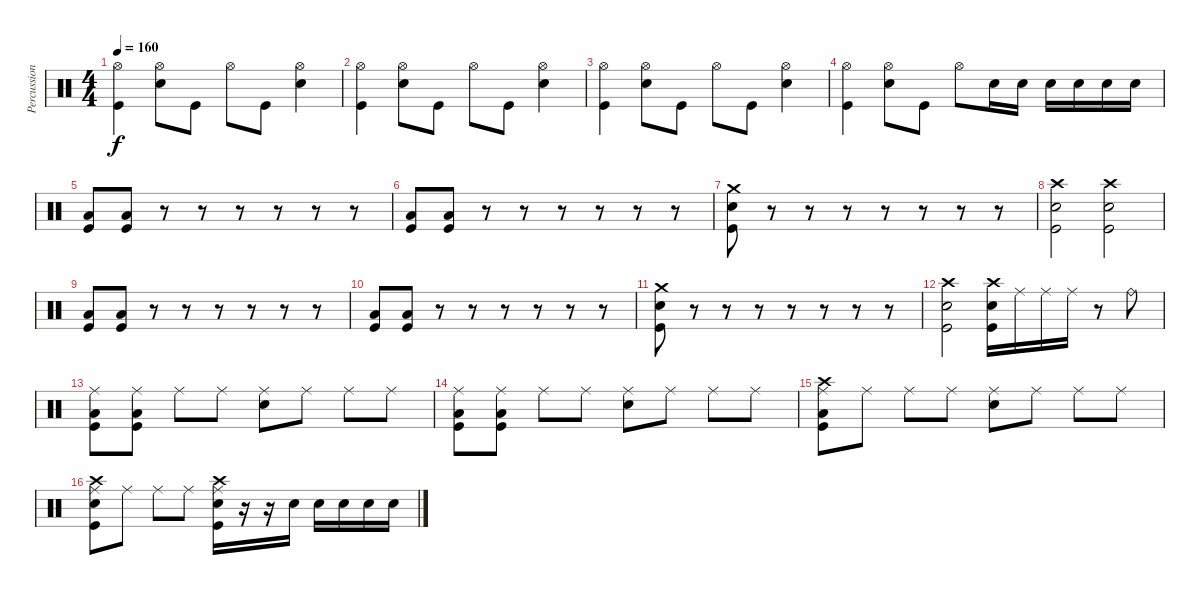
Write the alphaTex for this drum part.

\track ("Percussion" "Percussion") {instrument percussion}
\staff {score}
\articulation defaults
\ts (4 4)
\tempo 160
\clef neutral
\ks c
("Hi-Hat (open)" "Kick (hit)").4{dy f} ("Hi-Hat (open)" "Electric Snare (hit)").8 "Kick (hit)".8 "Hi-Hat (open)".8 "Kick (hit)".8 ("Hi-Hat (open)" "Electric Snare (hit)").4 |
("Hi-Hat (open)" "Kick (hit)").4 ("Hi-Hat (open)" "Electric Snare (hit)").8 "Kick (hit)".8 "Hi-Hat (open)".8 "Kick (hit)".8 ("Hi-Hat (open)" "Electric Snare (hit)").4 |
("Hi-Hat (open)" "Kick (hit)").4 ("Hi-Hat (open)" "Electric Snare (hit)").8 "Kick (hit)".8 "Hi-Hat (open)".8 "Kick (hit)".8 ("Hi-Hat (open)" "Electric Snare (hit)").4 |
("Hi-Hat (open)" "Kick (hit)").4 ("Hi-Hat (open)" "Electric Snare (hit)").8 "Kick (hit)".8 "Hi-Hat (open)".8 "Electric Snare (hit)".16 "Electric Snare (hit)".16 "Electric Snare (hit)".16 "Electric Snare (hit)".16 "Electric Snare (hit)".16 "Electric Snare (hit)".16 |
("Low Floor Tom (hit)" "Kick (hit)").8 ("Low Floor Tom (hit)" "Kick (hit)").8 r.8 r.8 r.8 r.8 r.8 r.8 |
("Low Floor Tom (hit)" "Kick (hit)").8 ("Low Floor Tom (hit)" "Kick (hit)").8 r.8 r.8 r.8 r.8 r.8 r.8 |
("Crash medium (hit)" "Electric Snare (hit)" "Kick (hit)").8 r.8 r.8 r.8 r.8 r.8 r.8 r.8 |
("Crash high (hit)" "Electric Snare (hit)" "Kick (hit)").2 ("Crash high (hit)" "Electric Snare (hit)" "Kick (hit)").2 |
("Low Floor Tom (hit)" "Kick (hit)").8 ("Low Floor Tom (hit)" "Kick (hit)").8 r.8 r.8 r.8 r.8 r.8 r.8 |
("Low Floor Tom (hit)" "Kick (hit)").8 ("Low Floor Tom (hit)" "Kick (hit)").8 r.8 r.8 r.8 r.8 r.8 r.8 |
("Crash medium (hit)" "Electric Snare (hit)" "Kick (hit)").8 r.8 r.8 r.8 r.8 r.8 r.8 r.8 |
("Crash high (hit)" "Electric Snare (hit)" "Kick (hit)").2 ("Crash high (hit)" "Electric Snare (hit)" "Kick (hit)").16 "Ride (middle)".16 "Ride (middle)".16 "Ride (middle)".16 r.8 "Ride (bell)".8 |
("Ride (middle)" "Low Floor Tom (hit)" "Kick (hit)").8 ("Ride (middle)" "Low Floor Tom (hit)" "Kick (hit)").8 "Ride (middle)".8 "Ride (middle)".8 ("Ride (middle)" "Electric Snare (hit)").8 "Ride (middle)".8 "Ride (middle)".8 "Ride (middle)".8 |
("Ride (middle)" "Low Floor Tom (hit)" "Kick (hit)").8 ("Ride (middle)" "Low Floor Tom (hit)" "Kick (hit)").8 "Ride (middle)".8 "Ride (middle)".8 ("Ride (middle)" "Electric Snare (hit)").8 "Ride (middle)".8 "Ride (middle)".8 "Ride (middle)".8 |
("Ride (middle)" "Crash high (hit)" "Low Floor Tom (hit)" "Kick (hit)").8 "Ride (middle)".8 "Ride (middle)".8 "Ride (middle)".8 ("Ride (middle)" "Electric Snare (hit)").8 "Ride (middle)".8 "Ride (middle)".8 "Ride (middle)".8 |
("Ride (middle)" "Crash high (hit)" "Electric Snare (hit)" "Kick (hit)").8 "Ride (middle)".8 "Ride (middle)".8 "Ride (middle)".8 ("Ride (middle)" "Crash high (hit)" "Electric Snare (hit)" "Kick (hit)").16 r.16 r.16 "Electric Snare (hit)".16 "Electric Snare (hit)".16 "Electric Snare (hit)".16 "Electric Snare (hit)".16 "Electric Snare (hit)".16
